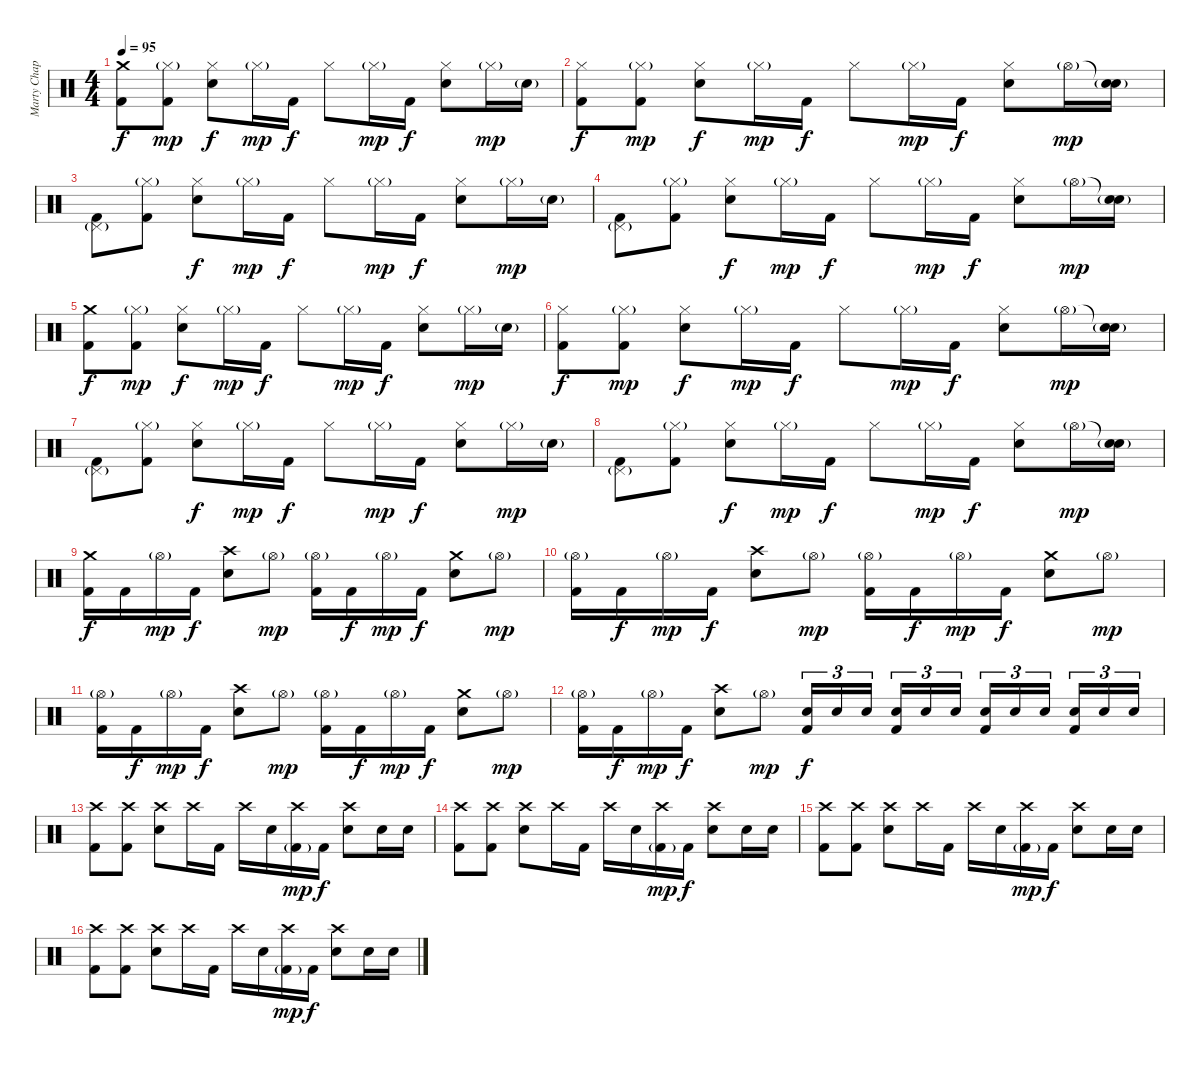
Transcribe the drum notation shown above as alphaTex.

\track ("Marty Chapman (Drums)" "Marty Chap") {instrument percussion}
\staff {score}
\articulation defaults
\ts (4 4)
\tempo 95
\clef neutral
\ks c
("Crash medium (hit)" "Kick (hit) 2").8{dy f} ("Hi-Hat (closed)"{g} "Kick (hit) 2").8{dy mp} ("Hi-Hat (closed)" "Electric Snare (hit)").8{dy f} "Hi-Hat (closed)"{g}.16{dy mp} "Kick (hit) 2".16{dy f} "Hi-Hat (closed)".8 "Hi-Hat (closed)"{g}.16{dy mp} "Kick (hit) 2".16{dy f} ("Hi-Hat (closed)" "Electric Snare (hit)").8 "Hi-Hat (closed)"{g}.16{dy mp} "Electric Snare (hit)"{g}.16 |
("Hi-Hat (closed)" "Kick (hit) 2").8{dy f} ("Hi-Hat (closed)"{g} "Kick (hit) 2").8{dy mp} ("Hi-Hat (closed)" "Electric Snare (hit)").8{dy f} "Hi-Hat (closed)"{g}.16{dy mp} "Kick (hit) 2".16{dy f} "Hi-Hat (closed)".8 "Hi-Hat (closed)"{g}.16{dy mp} "Kick (hit) 2".16{dy f} ("Hi-Hat (closed)" "Electric Snare (hit)").8 "Hi-Hat (open)"{g}.16{dy mp} ("Snare (hit)"{t} "Electric Snare (hit)"{g}).16 |
("Pedal Hi-Hat (hit)"{g} "Kick (hit) 2").8 ("Hi-Hat (closed)"{g} "Kick (hit) 2").8 ("Hi-Hat (closed)" "Electric Snare (hit)").8{dy f} "Hi-Hat (closed)"{g}.16{dy mp} "Kick (hit) 2".16{dy f} "Hi-Hat (closed)".8 "Hi-Hat (closed)"{g}.16{dy mp} "Kick (hit) 2".16{dy f} ("Hi-Hat (closed)" "Electric Snare (hit)").8 "Hi-Hat (closed)"{g}.16{dy mp} "Electric Snare (hit)"{g}.16 |
("Pedal Hi-Hat (hit)"{g} "Kick (hit) 2").8 ("Hi-Hat (closed)"{g} "Kick (hit) 2").8 ("Hi-Hat (closed)" "Electric Snare (hit)").8{dy f} "Hi-Hat (closed)"{g}.16{dy mp} "Kick (hit) 2".16{dy f} "Hi-Hat (closed)".8 "Hi-Hat (closed)"{g}.16{dy mp} "Kick (hit) 2".16{dy f} ("Hi-Hat (closed)" "Electric Snare (hit)").8 "Hi-Hat (open)"{g}.16{dy mp} ("Snare (hit)"{t} "Electric Snare (hit)"{g}).16 |
("Crash medium (hit)" "Kick (hit) 2").8{dy f} ("Hi-Hat (closed)"{g} "Kick (hit) 2").8{dy mp} ("Hi-Hat (closed)" "Electric Snare (hit)").8{dy f} "Hi-Hat (closed)"{g}.16{dy mp} "Kick (hit) 2".16{dy f} "Hi-Hat (closed)".8 "Hi-Hat (closed)"{g}.16{dy mp} "Kick (hit) 2".16{dy f} ("Hi-Hat (closed)" "Electric Snare (hit)").8 "Hi-Hat (closed)"{g}.16{dy mp} "Electric Snare (hit)"{g}.16 |
("Hi-Hat (closed)" "Kick (hit) 2").8{dy f} ("Hi-Hat (closed)"{g} "Kick (hit) 2").8{dy mp} ("Hi-Hat (closed)" "Electric Snare (hit)").8{dy f} "Hi-Hat (closed)"{g}.16{dy mp} "Kick (hit) 2".16{dy f} "Hi-Hat (closed)".8 "Hi-Hat (closed)"{g}.16{dy mp} "Kick (hit) 2".16{dy f} ("Hi-Hat (closed)" "Electric Snare (hit)").8 "Hi-Hat (open)"{g}.16{dy mp} ("Snare (hit)"{t} "Electric Snare (hit)"{g}).16 |
("Pedal Hi-Hat (hit)"{g} "Kick (hit) 2").8 ("Hi-Hat (closed)"{g} "Kick (hit) 2").8 ("Hi-Hat (closed)" "Electric Snare (hit)").8{dy f} "Hi-Hat (closed)"{g}.16{dy mp} "Kick (hit) 2".16{dy f} "Hi-Hat (closed)".8 "Hi-Hat (closed)"{g}.16{dy mp} "Kick (hit) 2".16{dy f} ("Hi-Hat (closed)" "Electric Snare (hit)").8 "Hi-Hat (closed)"{g}.16{dy mp} "Electric Snare (hit)"{g}.16 |
("Pedal Hi-Hat (hit)"{g} "Kick (hit) 2").8 ("Hi-Hat (closed)"{g} "Kick (hit) 2").8 ("Hi-Hat (closed)" "Electric Snare (hit)").8{dy f} "Hi-Hat (closed)"{g}.16{dy mp} "Kick (hit) 2".16{dy f} "Hi-Hat (closed)".8 "Hi-Hat (closed)"{g}.16{dy mp} "Kick (hit) 2".16{dy f} ("Hi-Hat (closed)" "Electric Snare (hit)").8 "Hi-Hat (open)"{g}.16{dy mp} ("Snare (hit)"{t} "Electric Snare (hit)"{g}).16 |
("Crash medium (hit)" "Kick (hit) 2").16{dy f} "Kick (hit) 2".16 "Hi-Hat (open)"{g}.16{dy mp} "Kick (hit) 2".16{dy f} ("Crash high (hit)" "Electric Snare (hit)").8 "Hi-Hat (open)"{g}.8{dy mp} ("Hi-Hat (open)"{g} "Kick (hit) 2").16 "Kick (hit) 2".16{dy f} "Hi-Hat (open)"{g}.16{dy mp} "Kick (hit) 2".16{dy f} ("Crash medium (hit)" "Electric Snare (hit)").8 "Hi-Hat (open)"{g}.8{dy mp} |
("Hi-Hat (open)"{g} "Kick (hit) 2").16 "Kick (hit) 2".16{dy f} "Hi-Hat (open)"{g}.16{dy mp} "Kick (hit) 2".16{dy f} ("Crash high (hit)" "Electric Snare (hit)").8 "Hi-Hat (open)"{g}.8{dy mp} ("Hi-Hat (open)"{g} "Kick (hit) 2").16 "Kick (hit) 2".16{dy f} "Hi-Hat (open)"{g}.16{dy mp} "Kick (hit) 2".16{dy f} ("Crash medium (hit)" "Electric Snare (hit)").8 "Hi-Hat (open)"{g}.8{dy mp} |
("Hi-Hat (open)"{g} "Kick (hit) 2").16 "Kick (hit) 2".16{dy f} "Hi-Hat (open)"{g}.16{dy mp} "Kick (hit) 2".16{dy f} ("Crash high (hit)" "Electric Snare (hit)").8 "Hi-Hat (open)"{g}.8{dy mp} ("Hi-Hat (open)"{g} "Kick (hit) 2").16 "Kick (hit) 2".16{dy f} "Hi-Hat (open)"{g}.16{dy mp} "Kick (hit) 2".16{dy f} ("Crash medium (hit)" "Electric Snare (hit)").8 "Hi-Hat (open)"{g}.8{dy mp} |
("Hi-Hat (open)"{g} "Kick (hit) 2").16 "Kick (hit) 2".16{dy f} "Hi-Hat (open)"{g}.16{dy mp} "Kick (hit) 2".16{dy f} ("Crash high (hit)" "Electric Snare (hit)").8 "Hi-Hat (open)"{g}.8{dy mp} ("Electric Snare (hit)" "Kick (hit) 2").16{tu (3 2) dy f} "Electric Snare (hit)".16{tu (3 2)} "Electric Snare (hit)".16{tu (3 2) beam splitsecondary} ("Electric Snare (hit)" "Kick (hit) 2").16{tu (3 2)} "Electric Snare (hit)".16{tu (3 2)} "Electric Snare (hit)".16{tu (3 2)} ("Electric Snare (hit)" "Kick (hit) 2").16{tu (3 2)} "Electric Snare (hit)".16{tu (3 2)} "Electric Snare (hit)".16{tu (3 2) beam splitsecondary} ("Electric Snare (hit)" "Kick (hit) 2").16{tu (3 2)} "Electric Snare (hit)".16{tu (3 2)} "Electric Snare (hit)".16{tu (3 2)} |
("Crash high (hit)" "Kick (hit) 2").8 ("Crash high (hit)" "Kick (hit) 2").8 ("Crash high (hit)" "Electric Snare (hit)").8 "Crash high (hit)".16 "Kick (hit) 2".16 "Crash high (hit)".16 "Electric Snare (hit)".16 ("Crash high (hit)" "Kick (hit) 2"{g}).16{dy mp} "Kick (hit) 2".16{dy f} ("Crash high (hit)" "Electric Snare (hit)").8 "Electric Snare (hit)".16 "Electric Snare (hit)".16 |
("Crash high (hit)" "Kick (hit) 2").8 ("Crash high (hit)" "Kick (hit) 2").8 ("Crash high (hit)" "Electric Snare (hit)").8 "Crash high (hit)".16 "Kick (hit) 2".16 "Crash high (hit)".16 "Electric Snare (hit)".16 ("Crash high (hit)" "Kick (hit) 2"{g}).16{dy mp} "Kick (hit) 2".16{dy f} ("Crash high (hit)" "Electric Snare (hit)").8 "Electric Snare (hit)".16 "Electric Snare (hit)".16 |
("Crash high (hit)" "Kick (hit) 2").8 ("Crash high (hit)" "Kick (hit) 2").8 ("Crash high (hit)" "Electric Snare (hit)").8 "Crash high (hit)".16 "Kick (hit) 2".16 "Crash high (hit)".16 "Electric Snare (hit)".16 ("Crash high (hit)" "Kick (hit) 2"{g}).16{dy mp} "Kick (hit) 2".16{dy f} ("Crash high (hit)" "Electric Snare (hit)").8 "Electric Snare (hit)".16 "Electric Snare (hit)".16 |
("Crash high (hit)" "Kick (hit) 2").8 ("Crash high (hit)" "Kick (hit) 2").8 ("Crash high (hit)" "Electric Snare (hit)").8 "Crash high (hit)".16 "Kick (hit) 2".16 "Crash high (hit)".16 "Electric Snare (hit)".16 ("Crash high (hit)" "Kick (hit) 2"{g}).16{dy mp} "Kick (hit) 2".16{dy f} ("Crash high (hit)" "Electric Snare (hit)").8 "Electric Snare (hit)".16 "Electric Snare (hit)".16
